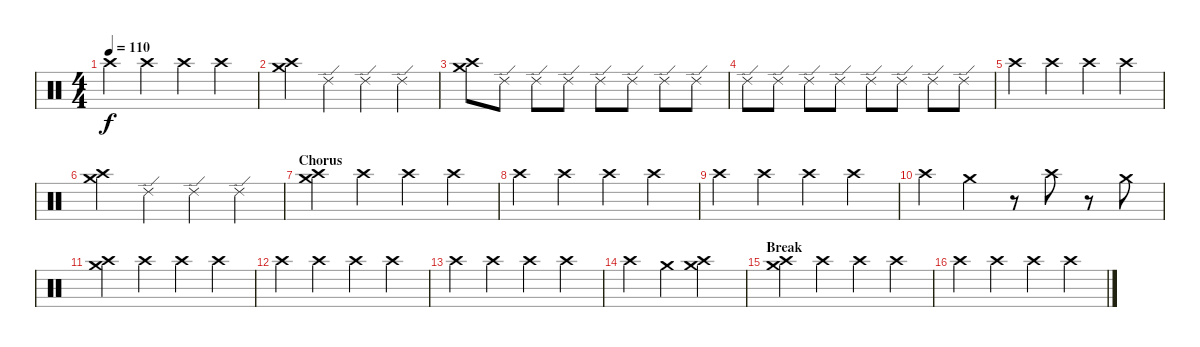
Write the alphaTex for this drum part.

\track "" {instrument percussion}
\staff {score}
\articulation defaults
\ts (4 4)
\tempo 110
\clef neutral
\ks c "Crash high (hit)".4{dy f} "Crash high (hit)".4 "Crash high (hit)".4 "Crash high (hit)".4
|
("Crash medium (hit)" "Crash high (hit)").4 "Ride (edge) 2".4 "Ride (edge) 2".4 "Ride (edge) 2".4 |
("Crash medium (hit)" "Crash high (hit)").8 "Ride (edge) 2".8 "Ride (edge) 2".8 "Ride (edge) 2".8 "Ride (edge) 2".8 "Ride (edge) 2".8 "Ride (edge) 2".8 "Ride (edge) 2".8 |
"Ride (edge) 2".8 "Ride (edge) 2".8 "Ride (edge) 2".8 "Ride (edge) 2".8 "Ride (edge) 2".8 "Ride (edge) 2".8 "Ride (edge) 2".8 "Ride (edge) 2".8 |
"Crash high (hit)".4 "Crash high (hit)".4 "Crash high (hit)".4 "Crash high (hit)".4 |
("Crash medium (hit)" "Crash high (hit)").4 "Ride (edge) 2".4 "Ride (edge) 2".4 "Ride (edge) 2".4 |
\section ("" "Chorus")
("Crash medium (hit)" "Crash high (hit)").4 "Crash high (hit)".4 "Crash high (hit)".4 "Crash high (hit)".4 |
"Crash high (hit)".4 "Crash high (hit)".4 "Crash high (hit)".4 "Crash high (hit)".4 |
"Crash high (hit)".4 "Crash high (hit)".4 "Crash high (hit)".4 "Crash high (hit)".4 |
"Crash high (hit)".4 "Crash medium (hit)".4 r.8 "Crash high (hit)".8 r.8 "Crash medium (hit)".8 |
("Crash medium (hit)" "Crash high (hit)").4 "Crash high (hit)".4 "Crash high (hit)".4 "Crash high (hit)".4 |
"Crash high (hit)".4 "Crash high (hit)".4 "Crash high (hit)".4 "Crash high (hit)".4 |
"Crash high (hit)".4 "Crash high (hit)".4 "Crash high (hit)".4 "Crash high (hit)".4 |
"Crash high (hit)".4 "Crash medium (hit)".4 ("Crash medium (hit)" "Crash high (hit)").2 |
\section ("" "Break")
("Crash medium (hit)" "Crash high (hit)").4 "Crash high (hit)".4 "Crash high (hit)".4 "Crash high (hit)".4 |
"Crash high (hit)".4 "Crash high (hit)".4 "Crash high (hit)".4 "Crash high (hit)".4
